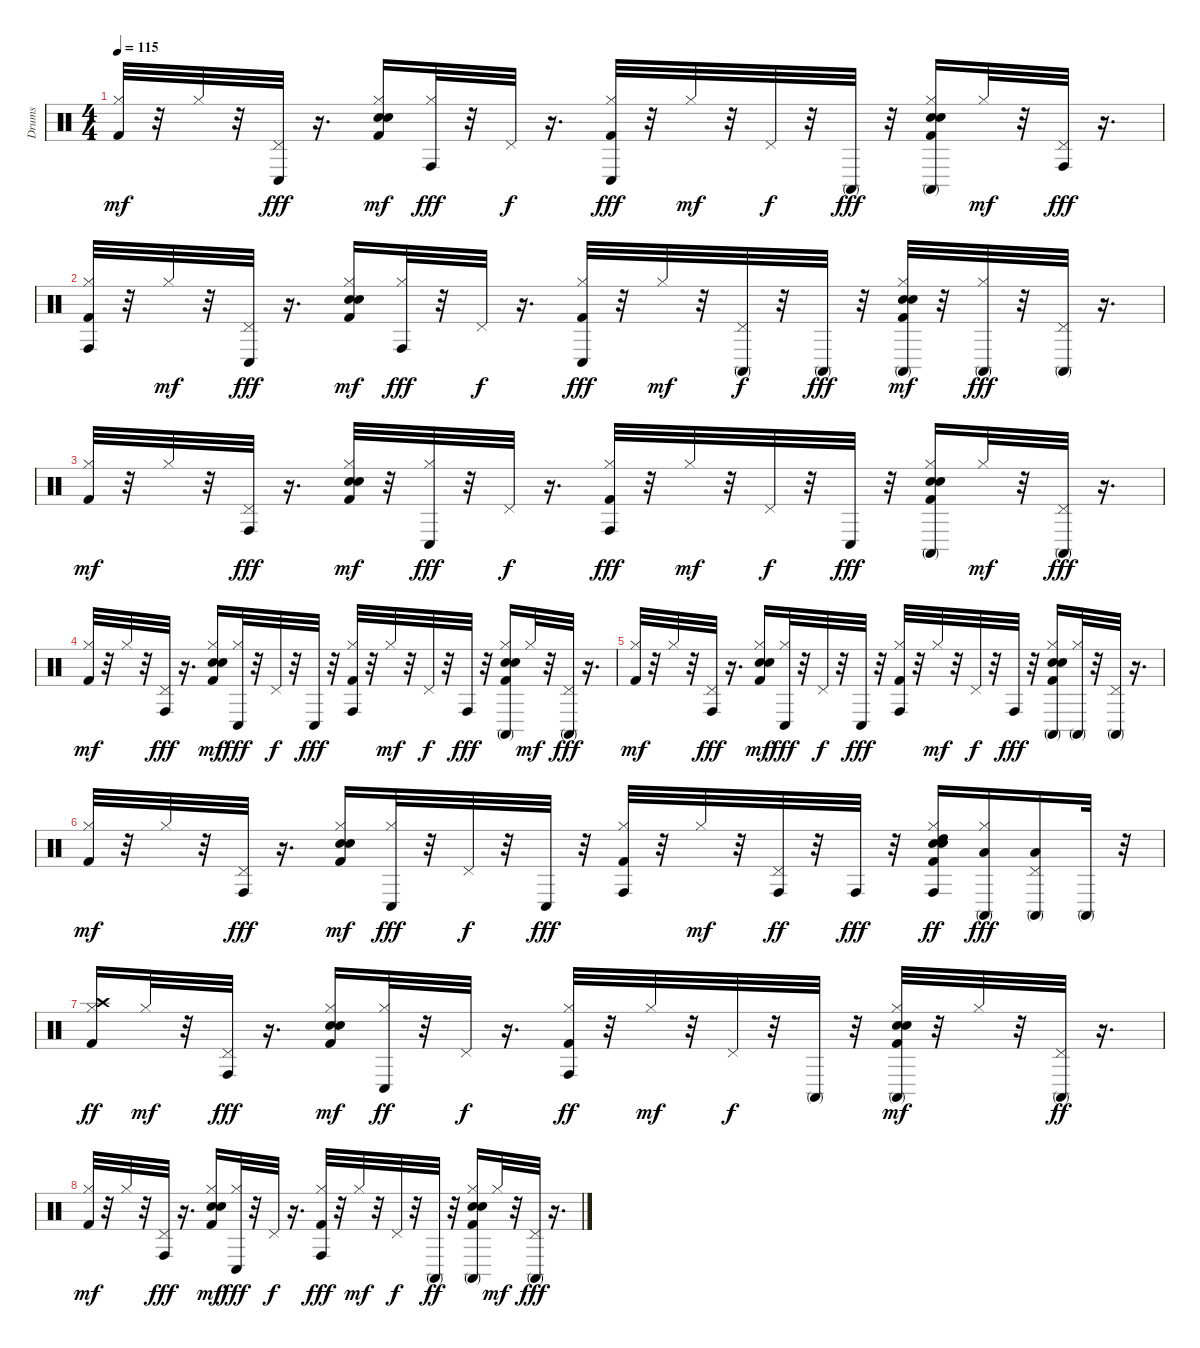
\track ("Drums" "Drums") {instrument percussion}
\staff {score}
\articulation defaults
\ts (4 4)
\tempo 115
\clef neutral
\ks c
("Kick (hit) 2" "Hi-Hat (closed)").32{dy mf} r.32 "Hi-Hat (closed)".32 r.32 ("Pedal Hi-Hat (hit)" "Conga low (hit)").32{dy fff} r.16{d} ("Kick (hit) 2" "Snare (hit) 2" "Hand Clap (hit)" "Hi-Hat (closed)").16{dy mf} ("Hi-Hat (closed)" "Conga high (hit)").32{dy fff} r.32 "Pedal Hi-Hat (hit)".32{dy f} r.16{d} ("Kick (hit) 2" "Hi-Hat (closed)" "Conga low (hit)").32{dy fff} r.32 "Hi-Hat (closed)".32{dy mf} r.32 "Pedal Hi-Hat (hit)".32{dy f} r.32 "Conga high (mute)".32{dy fff} r.32 ("Kick (hit) 2" "Snare (hit) 2" "Hand Clap (hit)" "Hi-Hat (closed)" "Conga high (mute)").16 "Hi-Hat (closed)".32{dy mf} r.32 ("Pedal Hi-Hat (hit)" "Conga high (hit)").32{dy fff} r.16{d} |
("Kick (hit) 2" "Hi-Hat (closed)" "Conga high (hit)").32 r.32 "Hi-Hat (closed)".32{dy mf} r.32 ("Pedal Hi-Hat (hit)" "Conga low (hit)").32{dy fff} r.16{d} ("Kick (hit) 2" "Snare (hit) 2" "Hand Clap (hit)" "Hi-Hat (closed)").16{dy mf} ("Hi-Hat (closed)" "Conga high (hit)").32{dy fff} r.32 "Pedal Hi-Hat (hit)".32{dy f} r.16{d} ("Kick (hit) 2" "Hi-Hat (closed)" "Conga low (hit)").32{dy fff} r.32 "Hi-Hat (closed)".32{dy mf} r.32 ("Pedal Hi-Hat (hit)" "Conga high (mute)").32{dy f} r.32 "Conga high (mute)".32{dy fff} r.32 ("Kick (hit) 2" "Snare (hit) 2" "Hand Clap (hit)" "Hi-Hat (closed)" "Conga high (mute)").32{dy mf} r.32 ("Hi-Hat (closed)" "Conga high (mute)").32{dy fff} r.32 ("Pedal Hi-Hat (hit)" "Conga high (mute)").32 r.16{d} |
("Kick (hit) 2" "Hi-Hat (closed)").32{dy mf} r.32 "Hi-Hat (closed)".32 r.32 ("Pedal Hi-Hat (hit)" "Conga high (hit)").32{dy fff} r.16{d} ("Kick (hit) 2" "Snare (hit) 2" "Hand Clap (hit)" "Hi-Hat (closed)").32{dy mf} r.32 ("Hi-Hat (closed)" "Conga low (hit)").32{dy fff} r.32 "Pedal Hi-Hat (hit)".32{dy f} r.16{d} ("Kick (hit) 2" "Hi-Hat (closed)" "Conga high (hit)").32{dy fff} r.32 "Hi-Hat (closed)".32{dy mf} r.32 "Pedal Hi-Hat (hit)".32{dy f} r.32 "Conga low (hit)".32{dy fff} r.32 ("Kick (hit) 2" "Snare (hit) 2" "Hand Clap (hit)" "Hi-Hat (closed)" "Conga high (mute)").16 "Hi-Hat (closed)".32{dy mf} r.32 ("Pedal Hi-Hat (hit)" "Conga high (mute)").32{dy fff} r.16{d} |
("Kick (hit) 2" "Hi-Hat (closed)").32{dy mf} r.32 "Hi-Hat (closed)".32 r.32 ("Pedal Hi-Hat (hit)" "Conga high (hit)").32{dy fff} r.16{d} ("Kick (hit) 2" "Snare (hit) 2" "Hand Clap (hit)" "Hi-Hat (closed)").16{dy mf} ("Hi-Hat (closed)" "Conga low (hit)").32{dy fff} r.32 "Pedal Hi-Hat (hit)".32{dy f} r.32 "Conga low (hit)".32{dy fff} r.32 ("Kick (hit) 2" "Hi-Hat (closed)" "Conga high (hit)").32 r.32 "Hi-Hat (closed)".32{dy mf} r.32 "Pedal Hi-Hat (hit)".32{dy f} r.32 "Conga high (hit)".32{dy fff} r.32 ("Kick (hit) 2" "Snare (hit) 2" "Hand Clap (hit)" "Hi-Hat (closed)" "Conga high (mute)").16 "Hi-Hat (closed)".32{dy mf} r.32 ("Pedal Hi-Hat (hit)" "Conga high (mute)").32{dy fff} r.16{d} |
("Kick (hit) 2" "Hi-Hat (closed)").32{dy mf} r.32 "Hi-Hat (closed)".32 r.32 ("Pedal Hi-Hat (hit)" "Conga high (hit)").32{dy fff} r.16{d} ("Kick (hit) 2" "Snare (hit) 2" "Hand Clap (hit)" "Hi-Hat (closed)").16{dy mf} ("Hi-Hat (closed)" "Conga low (hit)").32{dy fff} r.32 "Pedal Hi-Hat (hit)".32{dy f} r.32 "Conga low (hit)".32{dy fff} r.32 ("Kick (hit) 2" "Hi-Hat (closed)" "Conga high (hit)").32 r.32 "Hi-Hat (closed)".32{dy mf} r.32 "Pedal Hi-Hat (hit)".32{dy f} r.32 "Conga high (hit)".32{dy fff} r.32 ("Kick (hit) 2" "Snare (hit) 2" "Hand Clap (hit)" "Hi-Hat (closed)" "Conga high (mute)").16 ("Hi-Hat (closed)" "Conga high (mute)").32 r.32 ("Pedal Hi-Hat (hit)" "Conga high (mute)").32 r.16{d} |
("Kick (hit) 2" "Hi-Hat (closed)").32{dy mf} r.32 "Hi-Hat (closed)".32 r.32 ("Pedal Hi-Hat (hit)" "Conga high (hit)").32{dy fff} r.16{d} ("Kick (hit) 2" "Snare (hit) 2" "Hand Clap (hit)" "Hi-Hat (closed)").16{dy mf} ("Hi-Hat (closed)" "Conga low (hit)").32{dy fff} r.32 "Pedal Hi-Hat (hit)".32{dy f} r.32 "Conga low (hit)".32{dy fff} r.32 ("Kick (hit) 2" "Hi-Hat (closed)" "Conga high (hit)").32 r.32 "Hi-Hat (closed)".32{dy mf} r.32 ("Pedal Hi-Hat (hit)" "Conga high (hit)").32{dy ff} r.32 "Conga high (hit)".32{dy fff} r.32 ("Kick (hit) 2" "Snare (hit) 2" "Hand Clap (hit)" "Hi-Hat (closed)" "High Tom (hit)" "Conga high (hit)").16{dy ff} ("Hi-Hat (closed)" "Low Tom (hit)" "Conga high (mute)").16{dy fff} ("Pedal Hi-Hat (hit)" "Low Floor Tom (hit)" "Conga high (mute)").16 "Conga high (mute)".32 r.32 |
("Kick (hit) 2" "Hi-Hat (closed)" "Crash high (hit)").16{dy ff} "Hi-Hat (closed)".32{dy mf} r.32 ("Pedal Hi-Hat (hit)" "Conga high (hit)").32{dy fff} r.16{d} ("Kick (hit) 2" "Snare (hit) 2" "Hand Clap (hit)" "Hi-Hat (closed)").16{dy mf} ("Hi-Hat (closed)" "Conga low (hit)").32{dy ff} r.32 "Pedal Hi-Hat (hit)".32{dy f} r.16{d} ("Kick (hit) 2" "Hi-Hat (closed)" "Conga high (hit)").32{dy ff} r.32 "Hi-Hat (closed)".32{dy mf} r.32 "Pedal Hi-Hat (hit)".32{dy f} r.32 "Conga high (mute)".32 r.32 ("Kick (hit) 2" "Snare (hit) 2" "Hand Clap (hit)" "Hi-Hat (closed)" "Conga high (mute)").32{dy mf} r.32 "Hi-Hat (closed)".32 r.32 ("Pedal Hi-Hat (hit)" "Conga high (mute)").32{dy ff} r.16{d} |
("Kick (hit) 2" "Hi-Hat (closed)").32{dy mf} r.32 "Hi-Hat (closed)".32 r.32 ("Pedal Hi-Hat (hit)" "Conga high (hit)").32{dy fff} r.16{d} ("Kick (hit) 2" "Snare (hit) 2" "Hand Clap (hit)" "Hi-Hat (closed)").16{dy mf} ("Hi-Hat (closed)" "Conga low (hit)").32{dy fff} r.32 "Pedal Hi-Hat (hit)".32{dy f} r.16{d} ("Kick (hit) 2" "Hi-Hat (closed)" "Conga high (hit)").32{dy fff} r.32 "Hi-Hat (closed)".32{dy mf} r.32 "Pedal Hi-Hat (hit)".32{dy f} r.32 "Conga high (mute)".32{dy ff} r.32 ("Kick (hit) 2" "Snare (hit) 2" "Hand Clap (hit)" "Hi-Hat (closed)" "Conga high (mute)").16 "Hi-Hat (closed)".32{dy mf} r.32 ("Pedal Hi-Hat (hit)" "Conga high (mute)").32{dy fff} r.16{d}
